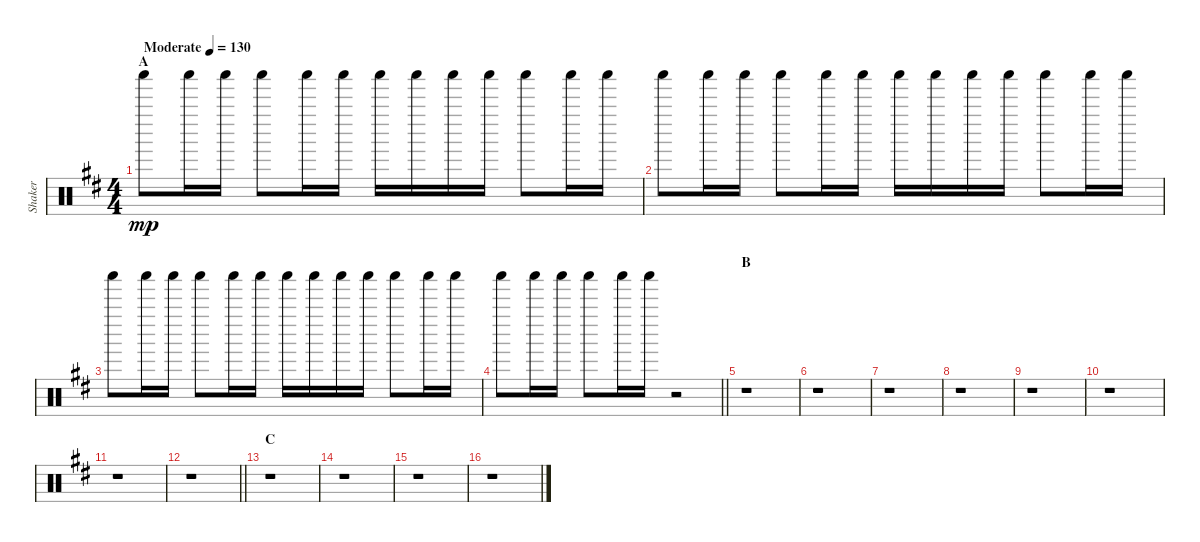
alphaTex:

\track ("Shaker" "Shaker") {instrument percussion}
\staff {score}
\articulation defaults
\ts (4 4)
\section ("" "A")
\tempo (130 "Moderate")
\clef neutral
\ks d "Shaker (hit)".8{dy mp} "Shaker (hit)".16 "Shaker (hit)".16 "Shaker (hit)".8 "Shaker (hit)".16 "Shaker (hit)".16 "Shaker (hit)".16 "Shaker (hit)".16 "Shaker (hit)".16 "Shaker (hit)".16 "Shaker (hit)".8 "Shaker (hit)".16 "Shaker (hit)".16
|
"Shaker (hit)".8 "Shaker (hit)".16 "Shaker (hit)".16 "Shaker (hit)".8 "Shaker (hit)".16 "Shaker (hit)".16 "Shaker (hit)".16 "Shaker (hit)".16 "Shaker (hit)".16 "Shaker (hit)".16 "Shaker (hit)".8 "Shaker (hit)".16 "Shaker (hit)".16 |
"Shaker (hit)".8 "Shaker (hit)".16 "Shaker (hit)".16 "Shaker (hit)".8 "Shaker (hit)".16 "Shaker (hit)".16 "Shaker (hit)".16 "Shaker (hit)".16 "Shaker (hit)".16 "Shaker (hit)".16 "Shaker (hit)".8 "Shaker (hit)".16 "Shaker (hit)".16 |
\barLineRight lightlight "Shaker (hit)".8 "Shaker (hit)".16 "Shaker (hit)".16 "Shaker (hit)".8 "Shaker (hit)".16 "Shaker (hit)".16
r.2 |
\section ("" "B")
r.1 |
r.1 |
r.1 |
r.1 |
r.1 |
r.1 |
r.1 |
\barLineRight lightlight
r.1 |
\section ("" "C")
r.1 |
r.1 |
r.1 |
r.1
